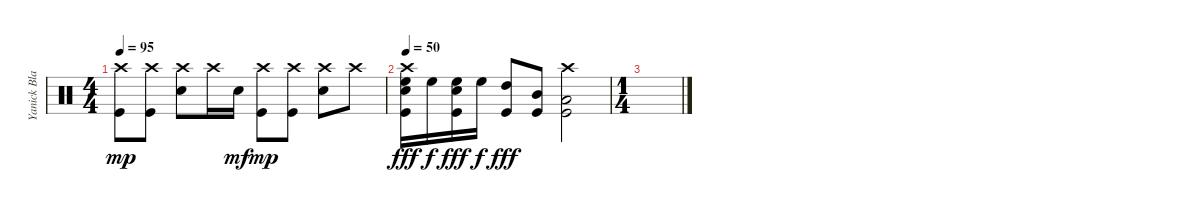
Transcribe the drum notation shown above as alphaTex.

\track ("Yanick Blanchette" "Yanick Bla") {instrument percussion}
\staff {score}
\articulation defaults
\ts (4 4)
\tempo 95
\clef neutral
\ks c
("Crash high (hit)" "Kick (hit)").8{dy mp} ("Crash high (hit)" "Kick (hit)").8 ("Crash high (hit)" "Snare (hit) 2").8 "Crash high (hit)".16 "Snare (hit) 2".16{dy mf} ("Crash high (hit)" "Kick (hit)").8{dy mp} ("Crash high (hit)" "Kick (hit)").8 ("Crash high (hit)" "Snare (hit) 2").8 "Crash high (hit)".8 |
\tempo 50
("Crash high (hit)" "High Floor Tom (hit)" "Snare (hit) 2" "Kick (hit)").16{dy fff} "High Floor Tom (hit)".16{dy f} ("High Floor Tom (hit)" "Snare (hit) 2" "Kick (hit)").16{dy fff} "High Floor Tom (hit)".16{dy f} ("High Tom (hit)" "Kick (hit)").8{dy fff} ("Mid Tom (hit)" "Kick (hit)").8 ("Crash high (hit)" "Low Tom (hit)" "Kick (hit)").2 |
\ts (1 4)
